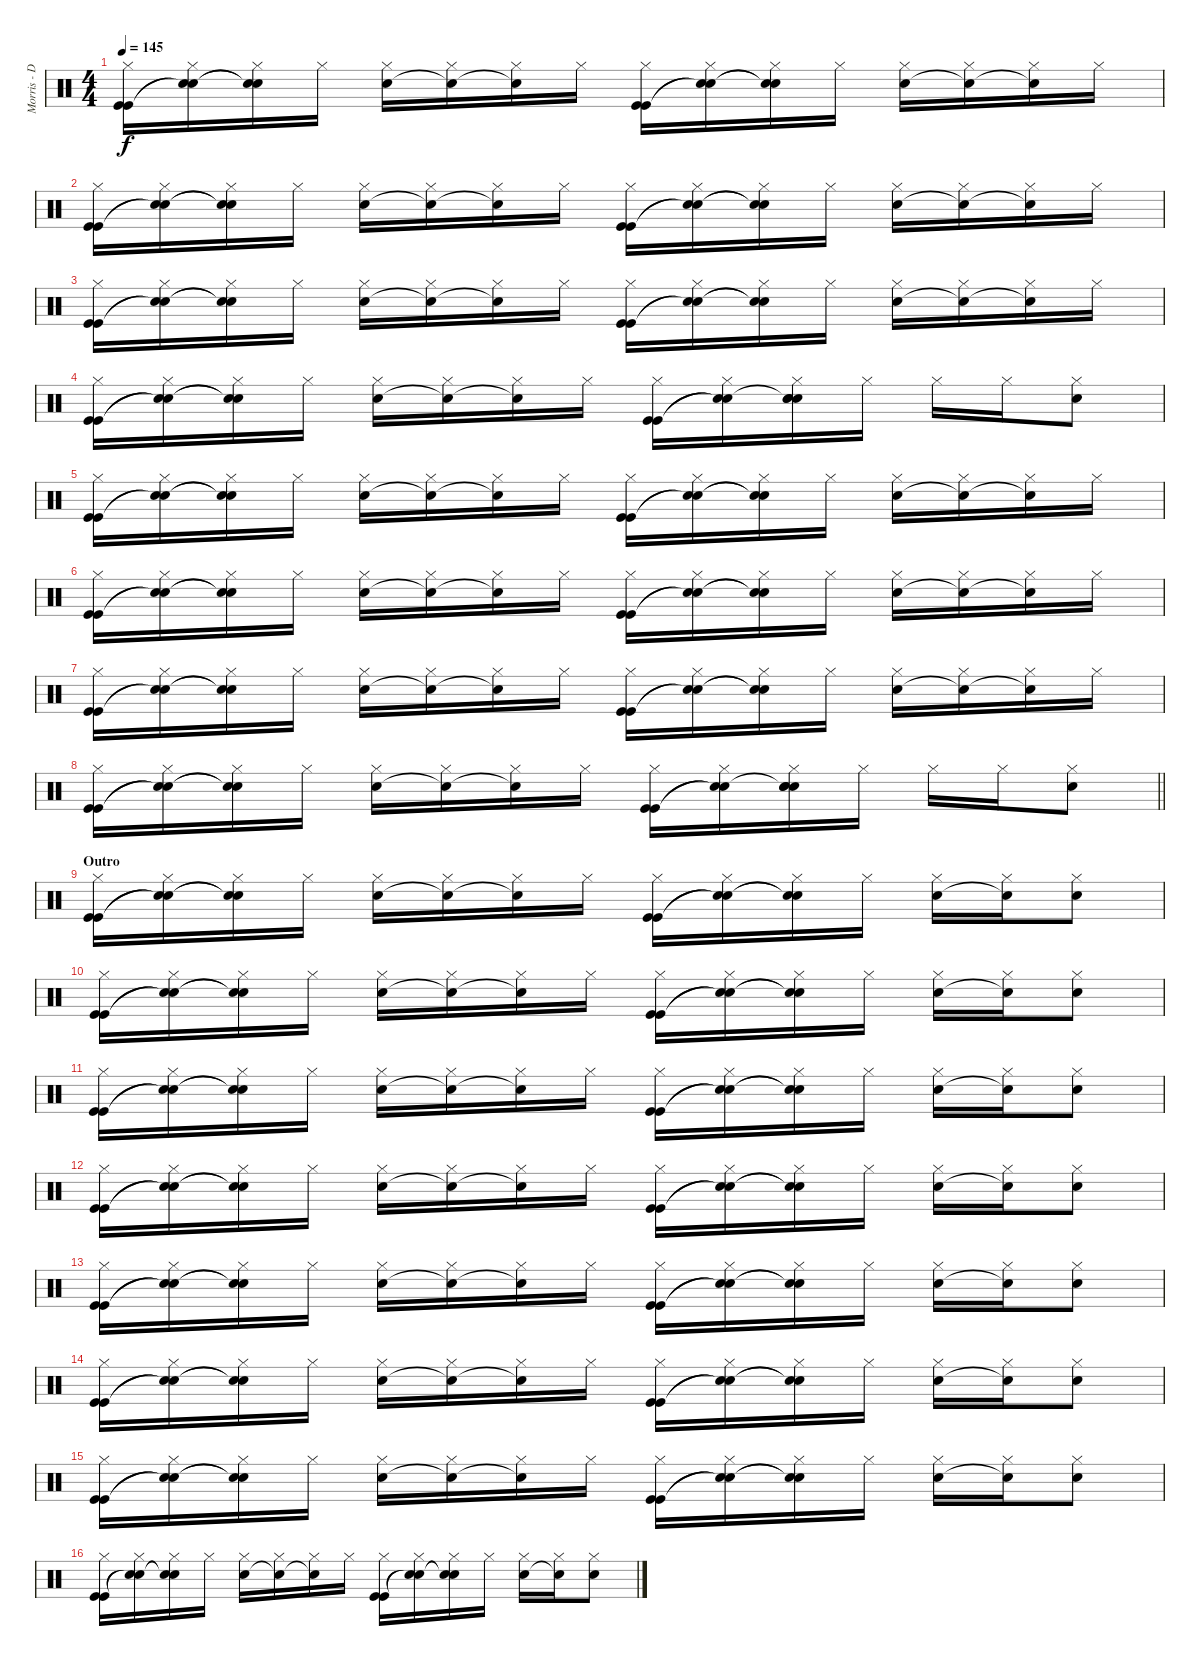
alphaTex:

\track ("Morris - Drums" "Morris - D") {instrument percussion}
\staff {score}
\articulation defaults
\ts (4 4)
\tempo 145
\clef neutral
\ks c
("Hi-Hat (closed)" "Kick (hit)" "Kick (hit)").16{dy f} ("Hi-Hat (closed)" "Snare (hit)"{t} "Snare (hit)"{t}).16 ("Hi-Hat (closed)" "Snare (hit)"{t} "Snare (hit)"{t}).16 "Hi-Hat (closed)".16 ("Hi-Hat (closed)" "Snare (hit) 2").16 ("Hi-Hat (closed)" "Snare (hit)"{t}).16 ("Hi-Hat (closed)" "Snare (hit) 2"{t}).16 "Hi-Hat (closed)".16 ("Hi-Hat (closed)" "Kick (hit)" "Kick (hit)").16 ("Hi-Hat (closed)" "Snare (hit)"{t} "Snare (hit)"{t}).16 ("Hi-Hat (closed)" "Snare (hit)"{t} "Snare (hit)"{t}).16 "Hi-Hat (closed)".16 ("Hi-Hat (closed)" "Snare (hit) 2").16 ("Hi-Hat (closed)" "Snare (hit) 2"{t}).16 ("Hi-Hat (closed)" "Snare (hit)"{t}).16 "Hi-Hat (closed)".16 |
("Hi-Hat (closed)" "Kick (hit)" "Kick (hit)").16 ("Hi-Hat (closed)" "Snare (hit)"{t} "Snare (hit)"{t}).16 ("Hi-Hat (closed)" "Snare (hit)"{t} "Snare (hit)"{t}).16 "Hi-Hat (closed)".16 ("Hi-Hat (closed)" "Snare (hit) 2").16 ("Hi-Hat (closed)" "Snare (hit)"{t}).16 ("Hi-Hat (closed)" "Snare (hit) 2"{t}).16 "Hi-Hat (closed)".16 ("Hi-Hat (closed)" "Kick (hit)" "Kick (hit)").16 ("Hi-Hat (closed)" "Snare (hit)"{t} "Snare (hit)"{t}).16 ("Hi-Hat (closed)" "Snare (hit)"{t} "Snare (hit)"{t}).16 "Hi-Hat (closed)".16 ("Hi-Hat (closed)" "Snare (hit) 2").16 ("Hi-Hat (closed)" "Snare (hit) 2"{t}).16 ("Hi-Hat (closed)" "Snare (hit)"{t}).16 "Hi-Hat (closed)".16 |
("Hi-Hat (closed)" "Kick (hit)" "Kick (hit)").16 ("Hi-Hat (closed)" "Snare (hit)"{t} "Snare (hit)"{t}).16 ("Hi-Hat (closed)" "Snare (hit)"{t} "Snare (hit)"{t}).16 "Hi-Hat (closed)".16 ("Hi-Hat (closed)" "Snare (hit) 2").16 ("Hi-Hat (closed)" "Snare (hit)"{t}).16 ("Hi-Hat (closed)" "Snare (hit) 2"{t}).16 "Hi-Hat (closed)".16 ("Hi-Hat (closed)" "Kick (hit)" "Kick (hit)").16 ("Hi-Hat (closed)" "Snare (hit)"{t} "Snare (hit)"{t}).16 ("Hi-Hat (closed)" "Snare (hit)"{t} "Snare (hit)"{t}).16 "Hi-Hat (closed)".16 ("Hi-Hat (closed)" "Snare (hit) 2").16 ("Hi-Hat (closed)" "Snare (hit) 2"{t}).16 ("Hi-Hat (closed)" "Snare (hit)"{t}).16 "Hi-Hat (closed)".16 |
("Hi-Hat (closed)" "Kick (hit)" "Kick (hit)").16 ("Hi-Hat (closed)" "Snare (hit)"{t} "Snare (hit)"{t}).16 ("Hi-Hat (closed)" "Snare (hit)"{t} "Snare (hit)"{t}).16 "Hi-Hat (closed)".16 ("Hi-Hat (closed)" "Snare (hit) 2").16 ("Hi-Hat (closed)" "Snare (hit)"{t}).16 ("Hi-Hat (closed)" "Snare (hit) 2"{t}).16 "Hi-Hat (closed)".16 ("Hi-Hat (closed)" "Kick (hit)" "Kick (hit)").16 ("Hi-Hat (closed)" "Snare (hit)"{t} "Snare (hit)"{t}).16 ("Hi-Hat (closed)" "Snare (hit) 2" "Snare (hit)"{t} "Snare (hit)").16 "Hi-Hat (closed)".16 "Hi-Hat (closed)".16 "Hi-Hat (closed)".16 ("Hi-Hat (closed)" "Snare (hit) 2").8 |
("Hi-Hat (closed)" "Kick (hit)" "Kick (hit)").16 ("Hi-Hat (closed)" "Snare (hit)"{t} "Snare (hit)"{t}).16 ("Hi-Hat (closed)" "Snare (hit)"{t} "Snare (hit)"{t}).16 "Hi-Hat (closed)".16 ("Hi-Hat (closed)" "Snare (hit) 2").16 ("Hi-Hat (closed)" "Snare (hit)"{t}).16 ("Hi-Hat (closed)" "Snare (hit) 2"{t}).16 "Hi-Hat (closed)".16 ("Hi-Hat (closed)" "Kick (hit)" "Kick (hit)").16 ("Hi-Hat (closed)" "Snare (hit)"{t} "Snare (hit)"{t}).16 ("Hi-Hat (closed)" "Snare (hit)"{t} "Snare (hit)"{t}).16 "Hi-Hat (closed)".16 ("Hi-Hat (closed)" "Snare (hit) 2").16 ("Hi-Hat (closed)" "Snare (hit) 2"{t}).16 ("Hi-Hat (closed)" "Snare (hit)"{t}).16 "Hi-Hat (closed)".16 |
("Hi-Hat (closed)" "Kick (hit)" "Kick (hit)").16 ("Hi-Hat (closed)" "Snare (hit)"{t} "Snare (hit)"{t}).16 ("Hi-Hat (closed)" "Snare (hit)"{t} "Snare (hit)"{t}).16 "Hi-Hat (closed)".16 ("Hi-Hat (closed)" "Snare (hit) 2").16 ("Hi-Hat (closed)" "Snare (hit)"{t}).16 ("Hi-Hat (closed)" "Snare (hit) 2"{t}).16 "Hi-Hat (closed)".16 ("Hi-Hat (closed)" "Kick (hit)" "Kick (hit)").16 ("Hi-Hat (closed)" "Snare (hit)"{t} "Snare (hit)"{t}).16 ("Hi-Hat (closed)" "Snare (hit)"{t} "Snare (hit)"{t}).16 "Hi-Hat (closed)".16 ("Hi-Hat (closed)" "Snare (hit) 2").16 ("Hi-Hat (closed)" "Snare (hit) 2"{t}).16 ("Hi-Hat (closed)" "Snare (hit)"{t}).16 "Hi-Hat (closed)".16 |
("Hi-Hat (closed)" "Kick (hit)" "Kick (hit)").16 ("Hi-Hat (closed)" "Snare (hit)"{t} "Snare (hit)"{t}).16 ("Hi-Hat (closed)" "Snare (hit)"{t} "Snare (hit)"{t}).16 "Hi-Hat (closed)".16 ("Hi-Hat (closed)" "Snare (hit) 2").16 ("Hi-Hat (closed)" "Snare (hit)"{t}).16 ("Hi-Hat (closed)" "Snare (hit) 2"{t}).16 "Hi-Hat (closed)".16 ("Hi-Hat (closed)" "Kick (hit)" "Kick (hit)").16 ("Hi-Hat (closed)" "Snare (hit)"{t} "Snare (hit)"{t}).16 ("Hi-Hat (closed)" "Snare (hit)"{t} "Snare (hit)"{t}).16 "Hi-Hat (closed)".16 ("Hi-Hat (closed)" "Snare (hit) 2").16 ("Hi-Hat (closed)" "Snare (hit) 2"{t}).16 ("Hi-Hat (closed)" "Snare (hit)"{t}).16 "Hi-Hat (closed)".16 |
\barLineRight lightlight
("Hi-Hat (closed)" "Kick (hit)" "Kick (hit)").16 ("Hi-Hat (closed)" "Snare (hit)"{t} "Snare (hit)"{t}).16 ("Hi-Hat (closed)" "Snare (hit)"{t} "Snare (hit)"{t}).16 "Hi-Hat (closed)".16 ("Hi-Hat (closed)" "Snare (hit) 2").16 ("Hi-Hat (closed)" "Snare (hit)"{t}).16 ("Hi-Hat (closed)" "Snare (hit) 2"{t}).16 "Hi-Hat (closed)".16 ("Hi-Hat (closed)" "Kick (hit)" "Kick (hit)").16 ("Hi-Hat (closed)" "Snare (hit)"{t} "Snare (hit)"{t}).16 ("Hi-Hat (closed)" "Snare (hit) 2" "Snare (hit)"{t} "Snare (hit)").16 "Hi-Hat (closed)".16 "Hi-Hat (closed)".16 "Hi-Hat (closed)".16 ("Hi-Hat (closed)" "Snare (hit) 2").8 |
\section ("" "Outro")
("Hi-Hat (closed)" "Kick (hit)" "Kick (hit)").16 ("Hi-Hat (closed)" "Snare (hit)"{t} "Snare (hit)"{t}).16 ("Hi-Hat (closed)" "Snare (hit)"{t} "Snare (hit)"{t}).16 "Hi-Hat (closed)".16 ("Hi-Hat (closed)" "Snare (hit) 2").16 ("Hi-Hat (closed)" "Snare (hit)"{t}).16 ("Hi-Hat (closed)" "Snare (hit)"{t}).16 "Hi-Hat (closed)".16 ("Hi-Hat (closed)" "Kick (hit)" "Kick (hit)").16 ("Hi-Hat (closed)" "Snare (hit)"{t} "Snare (hit)"{t}).16 ("Hi-Hat (closed)" "Snare (hit)"{t} "Snare (hit)"{t}).16 "Hi-Hat (closed)".16 ("Hi-Hat (closed)" "Snare (hit) 2").16 ("Hi-Hat (closed)" "Snare (hit) 2"{t}).16 ("Hi-Hat (closed)" "Snare (hit) 2").8 |
("Hi-Hat (closed)" "Kick (hit)" "Kick (hit)").16 ("Hi-Hat (closed)" "Snare (hit)"{t} "Snare (hit)"{t}).16 ("Hi-Hat (closed)" "Snare (hit)"{t} "Snare (hit)"{t}).16 "Hi-Hat (closed)".16 ("Hi-Hat (closed)" "Snare (hit) 2").16 ("Hi-Hat (closed)" "Snare (hit)"{t}).16 ("Hi-Hat (closed)" "Snare (hit)"{t}).16 "Hi-Hat (closed)".16 ("Hi-Hat (closed)" "Kick (hit)" "Kick (hit)").16 ("Hi-Hat (closed)" "Snare (hit)"{t} "Snare (hit)"{t}).16 ("Hi-Hat (closed)" "Snare (hit)"{t} "Snare (hit)"{t}).16 "Hi-Hat (closed)".16 ("Hi-Hat (closed)" "Snare (hit) 2").16 ("Hi-Hat (closed)" "Snare (hit) 2"{t}).16 ("Hi-Hat (closed)" "Snare (hit) 2").8 |
("Hi-Hat (closed)" "Kick (hit)" "Kick (hit)").16 ("Hi-Hat (closed)" "Snare (hit)"{t} "Snare (hit)"{t}).16 ("Hi-Hat (closed)" "Snare (hit)"{t} "Snare (hit)"{t}).16 "Hi-Hat (closed)".16 ("Hi-Hat (closed)" "Snare (hit) 2").16 ("Hi-Hat (closed)" "Snare (hit)"{t}).16 ("Hi-Hat (closed)" "Snare (hit)"{t}).16 "Hi-Hat (closed)".16 ("Hi-Hat (closed)" "Kick (hit)" "Kick (hit)").16 ("Hi-Hat (closed)" "Snare (hit)"{t} "Snare (hit)"{t}).16 ("Hi-Hat (closed)" "Snare (hit)"{t} "Snare (hit)"{t}).16 "Hi-Hat (closed)".16 ("Hi-Hat (closed)" "Snare (hit) 2").16 ("Hi-Hat (closed)" "Snare (hit) 2"{t}).16 ("Hi-Hat (closed)" "Snare (hit) 2").8 |
("Hi-Hat (closed)" "Kick (hit)" "Kick (hit)").16 ("Hi-Hat (closed)" "Snare (hit)"{t} "Snare (hit)"{t}).16 ("Hi-Hat (closed)" "Snare (hit)"{t} "Snare (hit)"{t}).16 "Hi-Hat (closed)".16 ("Hi-Hat (closed)" "Snare (hit) 2").16 ("Hi-Hat (closed)" "Snare (hit)"{t}).16 ("Hi-Hat (closed)" "Snare (hit)"{t}).16 "Hi-Hat (closed)".16 ("Hi-Hat (closed)" "Kick (hit)" "Kick (hit)").16 ("Hi-Hat (closed)" "Snare (hit)"{t} "Snare (hit)"{t}).16 ("Hi-Hat (closed)" "Snare (hit)"{t} "Snare (hit)"{t}).16 "Hi-Hat (closed)".16 ("Hi-Hat (closed)" "Snare (hit) 2").16 ("Hi-Hat (closed)" "Snare (hit) 2"{t}).16 ("Hi-Hat (closed)" "Snare (hit) 2").8 |
("Hi-Hat (closed)" "Kick (hit)" "Kick (hit)").16 ("Hi-Hat (closed)" "Snare (hit)"{t} "Snare (hit)"{t}).16 ("Hi-Hat (closed)" "Snare (hit)"{t} "Snare (hit)"{t}).16 "Hi-Hat (closed)".16 ("Hi-Hat (closed)" "Snare (hit) 2").16 ("Hi-Hat (closed)" "Snare (hit)"{t}).16 ("Hi-Hat (closed)" "Snare (hit)"{t}).16 "Hi-Hat (closed)".16 ("Hi-Hat (closed)" "Kick (hit)" "Kick (hit)").16 ("Hi-Hat (closed)" "Snare (hit)"{t} "Snare (hit)"{t}).16 ("Hi-Hat (closed)" "Snare (hit)"{t} "Snare (hit)"{t}).16 "Hi-Hat (closed)".16 ("Hi-Hat (closed)" "Snare (hit) 2").16 ("Hi-Hat (closed)" "Snare (hit) 2"{t}).16 ("Hi-Hat (closed)" "Snare (hit) 2").8 |
("Hi-Hat (closed)" "Kick (hit)" "Kick (hit)").16 ("Hi-Hat (closed)" "Snare (hit)"{t} "Snare (hit)"{t}).16 ("Hi-Hat (closed)" "Snare (hit)"{t} "Snare (hit)"{t}).16 "Hi-Hat (closed)".16 ("Hi-Hat (closed)" "Snare (hit) 2").16 ("Hi-Hat (closed)" "Snare (hit)"{t}).16 ("Hi-Hat (closed)" "Snare (hit)"{t}).16 "Hi-Hat (closed)".16 ("Hi-Hat (closed)" "Kick (hit)" "Kick (hit)").16 ("Hi-Hat (closed)" "Snare (hit)"{t} "Snare (hit)"{t}).16 ("Hi-Hat (closed)" "Snare (hit)"{t} "Snare (hit)"{t}).16 "Hi-Hat (closed)".16 ("Hi-Hat (closed)" "Snare (hit) 2").16 ("Hi-Hat (closed)" "Snare (hit) 2"{t}).16 ("Hi-Hat (closed)" "Snare (hit) 2").8 |
("Hi-Hat (closed)" "Kick (hit)" "Kick (hit)").16 ("Hi-Hat (closed)" "Snare (hit)"{t} "Snare (hit)"{t}).16 ("Hi-Hat (closed)" "Snare (hit)"{t} "Snare (hit)"{t}).16 "Hi-Hat (closed)".16 ("Hi-Hat (closed)" "Snare (hit) 2").16 ("Hi-Hat (closed)" "Snare (hit)"{t}).16 ("Hi-Hat (closed)" "Snare (hit)"{t}).16 "Hi-Hat (closed)".16 ("Hi-Hat (closed)" "Kick (hit)" "Kick (hit)").16 ("Hi-Hat (closed)" "Snare (hit)"{t} "Snare (hit)"{t}).16 ("Hi-Hat (closed)" "Snare (hit)"{t} "Snare (hit)"{t}).16 "Hi-Hat (closed)".16 ("Hi-Hat (closed)" "Snare (hit) 2").16 ("Hi-Hat (closed)" "Snare (hit) 2"{t}).16 ("Hi-Hat (closed)" "Snare (hit) 2").8 |
("Hi-Hat (closed)" "Kick (hit)" "Kick (hit)").16 ("Hi-Hat (closed)" "Snare (hit)"{t} "Snare (hit)"{t}).16 ("Hi-Hat (closed)" "Snare (hit)"{t} "Snare (hit)"{t}).16 "Hi-Hat (closed)".16 ("Hi-Hat (closed)" "Snare (hit) 2").16 ("Hi-Hat (closed)" "Snare (hit)"{t}).16 ("Hi-Hat (closed)" "Snare (hit)"{t}).16 "Hi-Hat (closed)".16 ("Hi-Hat (closed)" "Kick (hit)" "Kick (hit)").16 ("Hi-Hat (closed)" "Snare (hit)"{t} "Snare (hit)"{t}).16 ("Hi-Hat (closed)" "Snare (hit)"{t} "Snare (hit)"{t}).16 "Hi-Hat (closed)".16 ("Hi-Hat (closed)" "Snare (hit) 2").16 ("Hi-Hat (closed)" "Snare (hit) 2"{t}).16 ("Hi-Hat (closed)" "Snare (hit) 2").8
